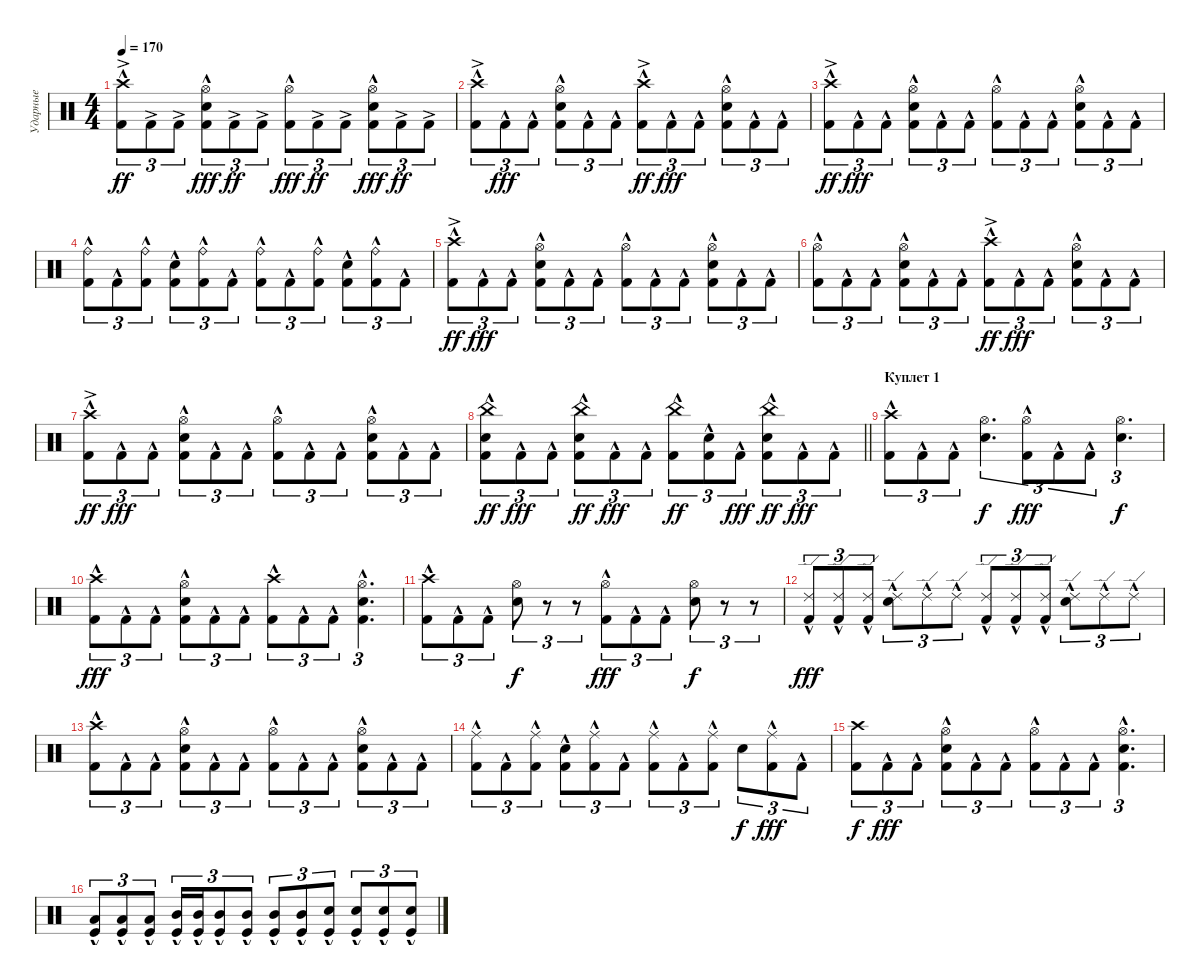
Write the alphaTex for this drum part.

\track ("Ударные" "Ударные") {instrument percussion}
\staff {score}
\articulation defaults
\ts (4 4)
\tempo 170
\clef neutral
\ks c
("Kick (hit) 2"{hac} "Crash high (hit)"{ac}).8{tu (3 2) dy ff} "Kick (hit) 2"{ac}.8{tu (3 2)} "Kick (hit) 2"{ac}.8{tu (3 2)} ("Kick (hit) 2"{hac} "Snare (hit) 2" "Hi-Hat (open)").8{tu (3 2) dy fff} "Kick (hit) 2"{ac}.8{tu (3 2) dy ff} "Kick (hit) 2"{ac}.8{tu (3 2)} ("Kick (hit) 2"{hac} "Hi-Hat (open)").8{tu (3 2) dy fff} "Kick (hit) 2"{ac}.8{tu (3 2) dy ff} "Kick (hit) 2"{ac}.8{tu (3 2)} ("Kick (hit) 2"{hac} "Snare (hit) 2" "Hi-Hat (open)").8{tu (3 2) dy fff} "Kick (hit) 2"{ac}.8{tu (3 2) dy ff} "Kick (hit) 2"{ac}.8{tu (3 2)} |
("Kick (hit) 2"{hac} "Crash high (hit)"{ac}).8{tu (3 2)} "Kick (hit) 2"{hac}.8{tu (3 2) dy fff} "Kick (hit) 2"{hac}.8{tu (3 2)} ("Kick (hit) 2"{hac} "Snare (hit) 2" "Hi-Hat (open)").8{tu (3 2)} "Kick (hit) 2"{hac}.8{tu (3 2)} "Kick (hit) 2"{hac}.8{tu (3 2)} ("Kick (hit) 2"{hac} "Crash high (hit)"{ac}).8{tu (3 2) dy ff} "Kick (hit) 2"{hac}.8{tu (3 2) dy fff} "Kick (hit) 2"{hac}.8{tu (3 2)} ("Kick (hit) 2"{hac} "Snare (hit) 2" "Hi-Hat (open)").8{tu (3 2)} "Kick (hit) 2"{hac}.8{tu (3 2)} "Kick (hit) 2"{hac}.8{tu (3 2)} |
("Kick (hit) 2"{hac} "Crash high (hit)"{ac}).8{tu (3 2) dy ff} "Kick (hit) 2"{hac}.8{tu (3 2) dy fff} "Kick (hit) 2"{hac}.8{tu (3 2)} ("Kick (hit) 2"{hac} "Snare (hit) 2" "Hi-Hat (open)").8{tu (3 2)} "Kick (hit) 2"{hac}.8{tu (3 2)} "Kick (hit) 2"{hac}.8{tu (3 2)} ("Kick (hit) 2"{hac} "Hi-Hat (open)").8{tu (3 2)} "Kick (hit) 2"{hac}.8{tu (3 2)} "Kick (hit) 2"{hac}.8{tu (3 2)} ("Kick (hit) 2"{hac} "Snare (hit) 2" "Hi-Hat (open)").8{tu (3 2)} "Kick (hit) 2"{hac}.8{tu (3 2)} "Kick (hit) 2"{hac}.8{tu (3 2)} |
("Kick (hit) 2"{hac} "Ride (bell)"{hac}).8{tu (3 2)} "Kick (hit) 2"{hac}.8{tu (3 2)} ("Kick (hit) 2"{hac} "Ride (bell)"{hac}).8{tu (3 2)} ("Kick (hit) 2"{hac} "Snare (hit) 2").8{tu (3 2)} ("Kick (hit) 2"{hac} "Ride (bell)"{hac}).8{tu (3 2)} "Kick (hit) 2"{hac}.8{tu (3 2)} ("Kick (hit) 2"{hac} "Ride (bell)"{hac}).8{tu (3 2)} "Kick (hit) 2"{hac}.8{tu (3 2)} ("Kick (hit) 2"{hac} "Ride (bell)"{hac}).8{tu (3 2)} ("Kick (hit) 2"{hac} "Snare (hit) 2").8{tu (3 2)} ("Kick (hit) 2"{hac} "Ride (bell)"{hac}).8{tu (3 2)} "Kick (hit) 2"{hac}.8{tu (3 2)} |
("Kick (hit) 2"{hac} "Crash high (hit)"{ac}).8{tu (3 2) dy ff} "Kick (hit) 2"{hac}.8{tu (3 2) dy fff} "Kick (hit) 2"{hac}.8{tu (3 2)} ("Kick (hit) 2"{hac} "Snare (hit) 2" "Hi-Hat (open)").8{tu (3 2)} "Kick (hit) 2"{hac}.8{tu (3 2)} "Kick (hit) 2"{hac}.8{tu (3 2)} ("Kick (hit) 2"{hac} "Hi-Hat (open)").8{tu (3 2)} "Kick (hit) 2"{hac}.8{tu (3 2)} "Kick (hit) 2"{hac}.8{tu (3 2)} ("Kick (hit) 2"{hac} "Snare (hit) 2" "Hi-Hat (open)").8{tu (3 2)} "Kick (hit) 2"{hac}.8{tu (3 2)} "Kick (hit) 2"{hac}.8{tu (3 2)} |
("Kick (hit) 2"{hac} "Hi-Hat (open)").8{tu (3 2)} "Kick (hit) 2"{hac}.8{tu (3 2)} "Kick (hit) 2"{hac}.8{tu (3 2)} ("Kick (hit) 2"{hac} "Snare (hit) 2" "Hi-Hat (open)").8{tu (3 2)} "Kick (hit) 2"{hac}.8{tu (3 2)} "Kick (hit) 2"{hac}.8{tu (3 2)} ("Kick (hit) 2"{hac} "Crash high (hit)"{ac}).8{tu (3 2) dy ff} "Kick (hit) 2"{hac}.8{tu (3 2) dy fff} "Kick (hit) 2"{hac}.8{tu (3 2)} ("Kick (hit) 2"{hac} "Snare (hit) 2" "Hi-Hat (open)").8{tu (3 2)} "Kick (hit) 2"{hac}.8{tu (3 2)} "Kick (hit) 2"{hac}.8{tu (3 2)} |
("Kick (hit) 2"{hac} "Crash high (hit)"{ac}).8{tu (3 2) dy ff} "Kick (hit) 2"{hac}.8{tu (3 2) dy fff} "Kick (hit) 2"{hac}.8{tu (3 2)} ("Kick (hit) 2"{hac} "Snare (hit) 2" "Hi-Hat (open)").8{tu (3 2)} "Kick (hit) 2"{hac}.8{tu (3 2)} "Kick (hit) 2"{hac}.8{tu (3 2)} ("Kick (hit) 2"{hac} "Hi-Hat (open)").8{tu (3 2)} "Kick (hit) 2"{hac}.8{tu (3 2)} "Kick (hit) 2"{hac}.8{tu (3 2)} ("Kick (hit) 2"{hac} "Snare (hit) 2" "Hi-Hat (open)").8{tu (3 2)} "Kick (hit) 2"{hac}.8{tu (3 2)} "Kick (hit) 2"{hac}.8{tu (3 2)} |
\barLineRight lightlight
("Kick (hit) 2"{hac} "Snare (hit) 2" "China (hit)").8{tu (3 2) dy ff} "Kick (hit) 2"{hac}.8{tu (3 2) dy fff} "Kick (hit) 2"{hac}.8{tu (3 2)} ("Kick (hit) 2"{hac} "Snare (hit) 2" "China (hit)").8{tu (3 2) dy ff} "Kick (hit) 2"{hac}.8{tu (3 2) dy fff} "Kick (hit) 2"{hac}.8{tu (3 2)} ("Kick (hit) 2"{hac} "China (hit)").8{tu (3 2) dy ff} ("Kick (hit) 2"{hac} "Snare (hit) 2").8{tu (3 2)} "Kick (hit) 2"{hac}.8{tu (3 2) dy fff} ("Kick (hit) 2"{hac} "Snare (hit) 2" "China (hit)").8{tu (3 2) dy ff} "Kick (hit) 2"{hac}.8{tu (3 2) dy fff} "Kick (hit) 2"{hac}.8{tu (3 2)} |
\section ("" "Куплет 1")
("Kick (hit) 2"{hac} "Crash high (hit)").8{tu (3 2)} "Kick (hit) 2"{hac}.8{tu (3 2)} "Kick (hit) 2"{hac}.8{tu (3 2)} ("Snare (hit) 2" "Hi-Hat (open)").4{d tu (3 2) dy f} ("Kick (hit) 2"{hac} "Hi-Hat (open)").8{tu (3 2) dy fff} "Kick (hit) 2"{hac}.8{tu (3 2)} "Kick (hit) 2"{hac}.8{tu (3 2)} ("Snare (hit) 2" "Hi-Hat (open)").4{d tu (3 2) dy f} |
("Kick (hit) 2"{hac} "Crash high (hit)").8{tu (3 2) dy fff} "Kick (hit) 2"{hac}.8{tu (3 2)} "Kick (hit) 2"{hac}.8{tu (3 2)} ("Kick (hit) 2"{hac} "Snare (hit) 2" "Hi-Hat (open)").8{tu (3 2)} "Kick (hit) 2"{hac}.8{tu (3 2)} "Kick (hit) 2"{hac}.8{tu (3 2)} ("Kick (hit) 2"{hac} "Crash high (hit)").8{tu (3 2)} "Kick (hit) 2"{hac}.8{tu (3 2)} "Kick (hit) 2"{hac}.8{tu (3 2)} ("Kick (hit) 2"{hac} "Snare (hit) 2" "Hi-Hat (open)").4{d tu (3 2)} |
("Kick (hit) 2"{hac} "Crash high (hit)").8{tu (3 2)} "Kick (hit) 2"{hac}.8{tu (3 2)} "Kick (hit) 2"{hac}.8{tu (3 2)} ("Snare (hit) 2" "Hi-Hat (open)").8{tu (3 2) dy f} r.8{tu (3 2)} r.8{tu (3 2)} ("Kick (hit) 2"{hac} "Hi-Hat (open)").8{tu (3 2) dy fff} "Kick (hit) 2"{hac}.8{tu (3 2)} "Kick (hit) 2"{hac}.8{tu (3 2)} ("Snare (hit) 2" "Hi-Hat (open)").8{tu (3 2) dy f} r.8{tu (3 2)} r.8{tu (3 2)} |
("Kick (hit) 2"{hac} "Ride (edge) 2"{hac}).8{tu (3 2) dy fff} ("Kick (hit) 2"{hac} "Ride (edge) 2"{hac}).8{tu (3 2)} ("Kick (hit) 2"{hac} "Ride (edge) 2"{hac}).8{tu (3 2)} ("Ride (edge) 2"{hac} "Snare (hit) 2").8{tu (3 2)} "Ride (edge) 2"{hac}.8{tu (3 2)} "Ride (edge) 2"{hac}.8{tu (3 2)} ("Kick (hit) 2"{hac} "Ride (edge) 2"{hac}).8{tu (3 2)} ("Kick (hit) 2"{hac} "Ride (edge) 2"{hac}).8{tu (3 2)} ("Kick (hit) 2"{hac} "Ride (edge) 2"{hac}).8{tu (3 2)} ("Ride (edge) 2"{hac} "Snare (hit) 2").8{tu (3 2)} "Ride (edge) 2"{hac}.8{tu (3 2)} "Ride (edge) 2"{hac}.8{tu (3 2)} |
("Kick (hit) 2"{hac} "Crash high (hit)").8{tu (3 2)} "Kick (hit) 2"{hac}.8{tu (3 2)} "Kick (hit) 2"{hac}.8{tu (3 2)} ("Kick (hit) 2"{hac} "Snare (hit) 2" "Hi-Hat (open)").8{tu (3 2)} "Kick (hit) 2"{hac}.8{tu (3 2)} "Kick (hit) 2"{hac}.8{tu (3 2)} ("Kick (hit) 2"{hac} "Hi-Hat (open)").8{tu (3 2)} "Kick (hit) 2"{hac}.8{tu (3 2)} "Kick (hit) 2"{hac}.8{tu (3 2)} ("Kick (hit) 2"{hac} "Snare (hit) 2" "Hi-Hat (open)").8{tu (3 2)} "Kick (hit) 2"{hac}.8{tu (3 2)} "Kick (hit) 2"{hac}.8{tu (3 2)} |
("Kick (hit) 2"{hac} "Ride (middle)"{hac}).8{tu (3 2)} "Kick (hit) 2"{hac}.8{tu (3 2)} ("Ride (middle)"{hac} "Kick (hit) 2"{hac}).8{tu (3 2)} ("Kick (hit) 2"{hac} "Snare (hit) 2").8{tu (3 2)} ("Ride (middle)"{hac} "Kick (hit) 2"{hac}).8{tu (3 2)} "Kick (hit) 2"{hac}.8{tu (3 2)} ("Kick (hit) 2"{hac} "Ride (middle)"{hac}).8{tu (3 2)} "Kick (hit) 2"{hac}.8{tu (3 2)} ("Ride (middle)"{hac} "Kick (hit) 2"{hac}).8{tu (3 2)} "Snare (hit) 2".8{tu (3 2) dy f} ("Ride (middle)"{hac} "Kick (hit) 2"{hac}).8{tu (3 2) dy fff} "Kick (hit) 2"{hac}.8{tu (3 2)} |
("Kick (hit) 2" "Crash high (hit)").8{tu (3 2) dy f} "Kick (hit) 2"{hac}.8{tu (3 2) dy fff} "Kick (hit) 2"{hac}.8{tu (3 2)} ("Kick (hit) 2"{hac} "Snare (hit) 2" "Hi-Hat (open)").8{tu (3 2)} "Kick (hit) 2"{hac}.8{tu (3 2)} "Kick (hit) 2"{hac}.8{tu (3 2)} ("Kick (hit) 2"{hac} "Hi-Hat (open)").8{tu (3 2)} "Kick (hit) 2"{hac}.8{tu (3 2)} "Kick (hit) 2"{hac}.8{tu (3 2)} ("Kick (hit) 2"{hac} "Snare (hit) 2" "Hi-Hat (open)").4{d tu (3 2)} |
("Low Tom (hit)"{hac} "Kick (hit)"{hac}).8{tu (3 2)} ("Low Tom (hit)"{hac} "Kick (hit)"{hac}).8{tu (3 2)} ("Low Tom (hit)"{hac} "Kick (hit)"{hac}).8{tu (3 2)} ("Mid Tom (hit)" "Kick (hit)"{hac}).16{tu (3 2)} ("Mid Tom (hit)" "Kick (hit)"{hac}).16{tu (3 2)} ("Mid Tom (hit)" "Kick (hit)"{hac}).8{tu (3 2)} ("Mid Tom (hit)" "Kick (hit)"{hac}).8{tu (3 2)} ("Mid Tom (hit)" "Kick (hit)"{hac}).8{tu (3 2)} ("Mid Tom (hit)" "Kick (hit)"{hac}).8{tu (3 2)} ("Snare (hit) 2" "Kick (hit)"{hac}).8{tu (3 2)} ("Snare (hit) 2" "Kick (hit)"{hac}).8{tu (3 2)} ("Snare (hit) 2" "Kick (hit)"{hac}).8{tu (3 2)} ("Snare (hit) 2" "Kick (hit)"{hac}).8{tu (3 2)}
